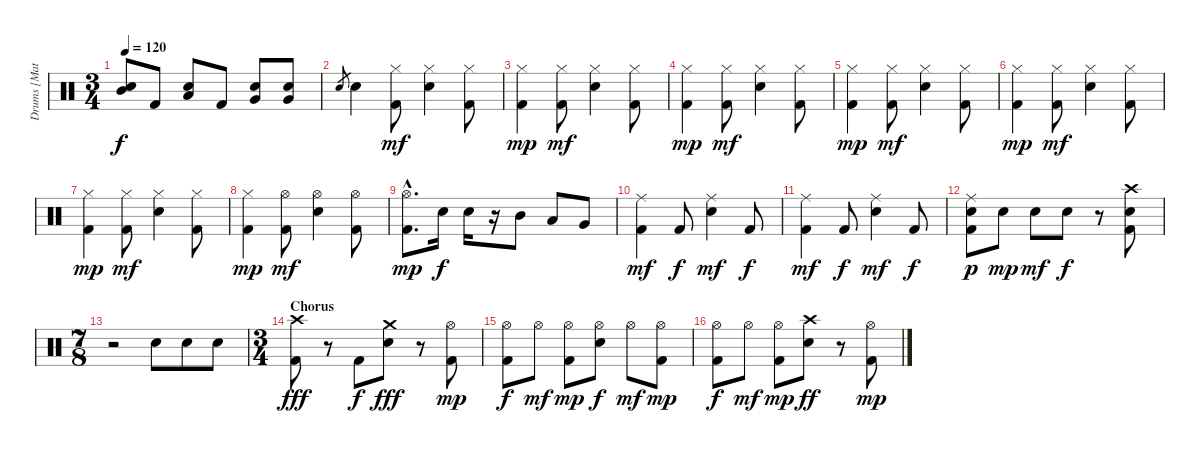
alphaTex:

\track ("Drums [Matt]" "Drums [Mat") {instrument percussion}
\staff {score}
\articulation defaults
\ts (3 4)
\tempo 120
\clef neutral
\ks c
("Snare (hit) 2" "Mid Tom (hit)").8{dy f} "Kick (hit) 2".8 ("Snare (hit) 2" "Low Tom (hit)").8 "Kick (hit) 2".8 ("Snare (hit) 2" "Very Low Tom (hit)").8 ("Snare (hit) 2" "Very Low Tom (hit)").8 |
"Snare (hit) 2".8{gr} "Snare (hit) 2".4 ("Hi-Hat (closed)" "Kick (hit) 2").8{dy mf} ("Hi-Hat (closed)" "Snare (hit) 2").4 ("Hi-Hat (closed)" "Kick (hit) 2").8 |
("Hi-Hat (closed)" "Kick (hit) 2").4{dy mp} ("Hi-Hat (closed)" "Kick (hit) 2").8{dy mf} ("Hi-Hat (closed)" "Snare (hit) 2").4 ("Hi-Hat (closed)" "Kick (hit) 2").8 |
("Hi-Hat (closed)" "Kick (hit) 2").4{dy mp} ("Hi-Hat (closed)" "Kick (hit) 2").8{dy mf} ("Hi-Hat (closed)" "Snare (hit) 2").4 ("Hi-Hat (closed)" "Kick (hit) 2").8 |
("Hi-Hat (closed)" "Kick (hit) 2").4{dy mp} ("Hi-Hat (closed)" "Kick (hit) 2").8{dy mf} ("Hi-Hat (closed)" "Snare (hit) 2").4 ("Hi-Hat (closed)" "Kick (hit) 2").8 |
("Hi-Hat (closed)" "Kick (hit) 2").4{dy mp} ("Hi-Hat (closed)" "Kick (hit) 2").8{dy mf} ("Hi-Hat (closed)" "Snare (hit) 2").4 ("Hi-Hat (closed)" "Kick (hit) 2").8 |
("Hi-Hat (closed)" "Kick (hit) 2").4{dy mp} ("Hi-Hat (closed)" "Kick (hit) 2").8{dy mf} ("Hi-Hat (closed)" "Snare (hit) 2").4 ("Hi-Hat (closed)" "Kick (hit) 2").8 |
("Hi-Hat (closed)" "Kick (hit) 2").4{dy mp} ("Hi-Hat (open)" "Kick (hit) 2").8{dy mf} ("Hi-Hat (open)" "Snare (hit) 2").4 ("Hi-Hat (open)" "Kick (hit) 2").8 |
("Hi-Hat (open)"{hac} "Kick (hit) 2"{hac}).8{d dy mp} "Snare (hit) 2".16{dy f} "Snare (hit) 2".16 r.16 "Mid Tom (hit)".8 "Low Tom (hit)".8 "Very Low Tom (hit)".8 |
("Ride (middle)" "Kick (hit) 2").4{dy mf} "Kick (hit) 2".8{dy f} ("Ride (middle)" "Snare (hit) 2").4{dy mf} "Kick (hit) 2".8{dy f} |
("Ride (middle)" "Kick (hit) 2").4{dy mf} "Kick (hit) 2".8{dy f} ("Ride (middle)" "Snare (hit) 2").4{dy mf} "Kick (hit) 2".8{dy f} |
("Ride (middle)" "Snare (hit) 2" "Kick (hit) 2").8{dy p} "Snare (hit) 2".8{dy mp} "Snare (hit) 2".8{dy mf} "Snare (hit) 2".8{dy f} r.8 ("Crash high (hit)" "Snare (hit) 2" "Kick (hit) 2").8 |
\ts (7 8)
r.2 "Snare (hit) 2".8 "Snare (hit) 2".8 "Snare (hit) 2".8 |
\ts (3 4)
\section ("" "Chorus")
("Crash high (hit)" "Kick (hit) 2").8{dy fff} r.8 "Kick (hit) 2".8{dy f} ("Crash medium (hit)" "Snare (hit) 2").8{dy fff} r.8 ("Hi-Hat (open)" "Kick (hit) 2").8{dy mp} |
("Hi-Hat (open)" "Kick (hit) 2").8{dy f} "Hi-Hat (open)".8{dy mf} ("Hi-Hat (open)" "Kick (hit) 2").8{dy mp} ("Hi-Hat (open)" "Snare (hit) 2").8{dy f} "Hi-Hat (open)".8{dy mf} ("Hi-Hat (open)" "Kick (hit) 2").8{dy mp} |
("Hi-Hat (open)" "Kick (hit) 2").8{dy f} "Hi-Hat (open)".8{dy mf} ("Hi-Hat (open)" "Kick (hit) 2").8{dy mp} ("Crash high (hit)" "Snare (hit) 2").8{dy ff} r.8 ("Hi-Hat (open)" "Kick (hit) 2").8{dy mp}
